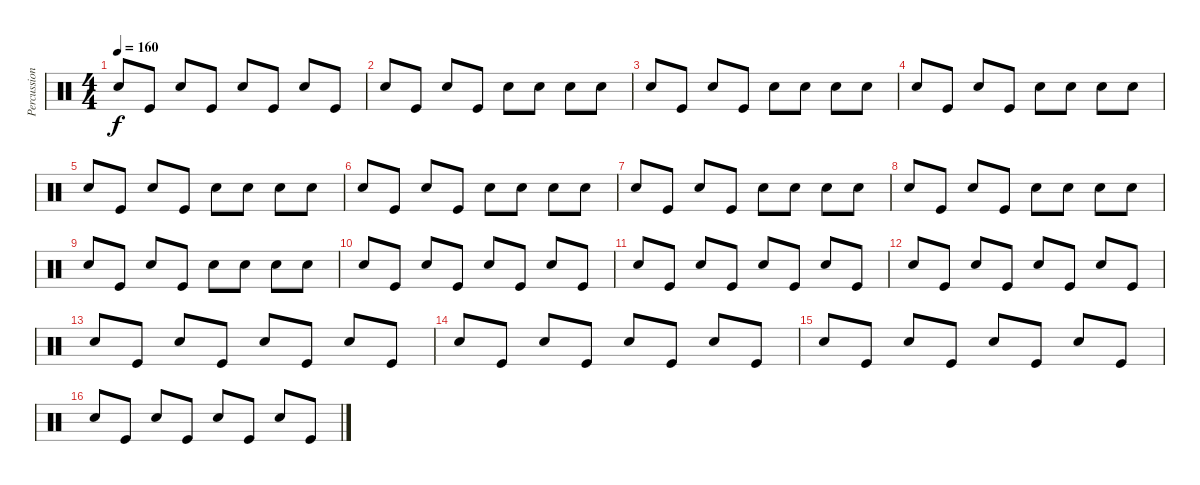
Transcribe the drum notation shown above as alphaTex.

\track ("Percussions" "Percussion") {instrument percussion}
\staff {score}
\articulation defaults
\ts (4 4)
\tempo 160
\clef neutral
\ks c "Snare (hit) 2".8{dy f} "Kick (hit)".8 "Snare (hit) 2".8 "Kick (hit)".8 "Snare (hit) 2".8 "Kick (hit)".8 "Snare (hit) 2".8 "Kick (hit)".8
|
"Snare (hit) 2".8 "Kick (hit)".8 "Snare (hit) 2".8 "Kick (hit)".8 "Snare (hit) 2".8 "Hand Clap (hit)".8 "Hand Clap (hit)".8 "Hand Clap (hit)".8 |
"Snare (hit) 2".8 "Kick (hit)".8 "Snare (hit) 2".8 "Kick (hit)".8 "Snare (hit) 2".8 "Hand Clap (hit)".8 "Hand Clap (hit)".8 "Hand Clap (hit)".8 |
"Snare (hit) 2".8 "Kick (hit)".8 "Snare (hit) 2".8 "Kick (hit)".8 "Snare (hit) 2".8 "Hand Clap (hit)".8 "Hand Clap (hit)".8 "Hand Clap (hit)".8 |
"Snare (hit) 2".8 "Kick (hit)".8 "Snare (hit) 2".8 "Kick (hit)".8 "Snare (hit) 2".8 "Hand Clap (hit)".8 "Hand Clap (hit)".8 "Hand Clap (hit)".8 |
"Snare (hit) 2".8 "Kick (hit)".8 "Snare (hit) 2".8 "Kick (hit)".8 "Snare (hit) 2".8 "Hand Clap (hit)".8 "Hand Clap (hit)".8 "Hand Clap (hit)".8 |
"Snare (hit) 2".8 "Kick (hit)".8 "Snare (hit) 2".8 "Kick (hit)".8 "Snare (hit) 2".8 "Hand Clap (hit)".8 "Hand Clap (hit)".8 "Hand Clap (hit)".8 |
"Snare (hit) 2".8 "Kick (hit)".8 "Snare (hit) 2".8 "Kick (hit)".8 "Snare (hit) 2".8 "Hand Clap (hit)".8 "Hand Clap (hit)".8 "Hand Clap (hit)".8 |
"Snare (hit) 2".8 "Kick (hit)".8 "Snare (hit) 2".8 "Kick (hit)".8 "Snare (hit) 2".8 "Hand Clap (hit)".8 "Hand Clap (hit)".8 "Hand Clap (hit)".8 |
"Snare (hit) 2".8 "Kick (hit)".8 "Snare (hit) 2".8 "Kick (hit)".8 "Snare (hit) 2".8 "Kick (hit)".8 "Snare (hit) 2".8 "Kick (hit)".8 |
"Snare (hit) 2".8 "Kick (hit)".8 "Snare (hit) 2".8 "Kick (hit)".8 "Snare (hit) 2".8 "Kick (hit)".8 "Snare (hit) 2".8 "Kick (hit)".8 |
"Snare (hit) 2".8 "Kick (hit)".8 "Snare (hit) 2".8 "Kick (hit)".8 "Snare (hit) 2".8 "Kick (hit)".8 "Snare (hit) 2".8 "Kick (hit)".8 |
"Snare (hit) 2".8 "Kick (hit)".8 "Snare (hit) 2".8 "Kick (hit)".8 "Snare (hit) 2".8 "Kick (hit)".8 "Snare (hit) 2".8 "Kick (hit)".8 |
"Snare (hit) 2".8 "Kick (hit)".8 "Snare (hit) 2".8 "Kick (hit)".8 "Snare (hit) 2".8 "Kick (hit)".8 "Snare (hit) 2".8 "Kick (hit)".8 |
"Snare (hit) 2".8 "Kick (hit)".8 "Snare (hit) 2".8 "Kick (hit)".8 "Snare (hit) 2".8 "Kick (hit)".8 "Snare (hit) 2".8 "Kick (hit)".8 |
"Snare (hit) 2".8 "Kick (hit)".8 "Snare (hit) 2".8 "Kick (hit)".8 "Snare (hit) 2".8 "Kick (hit)".8 "Snare (hit) 2".8 "Kick (hit)".8
